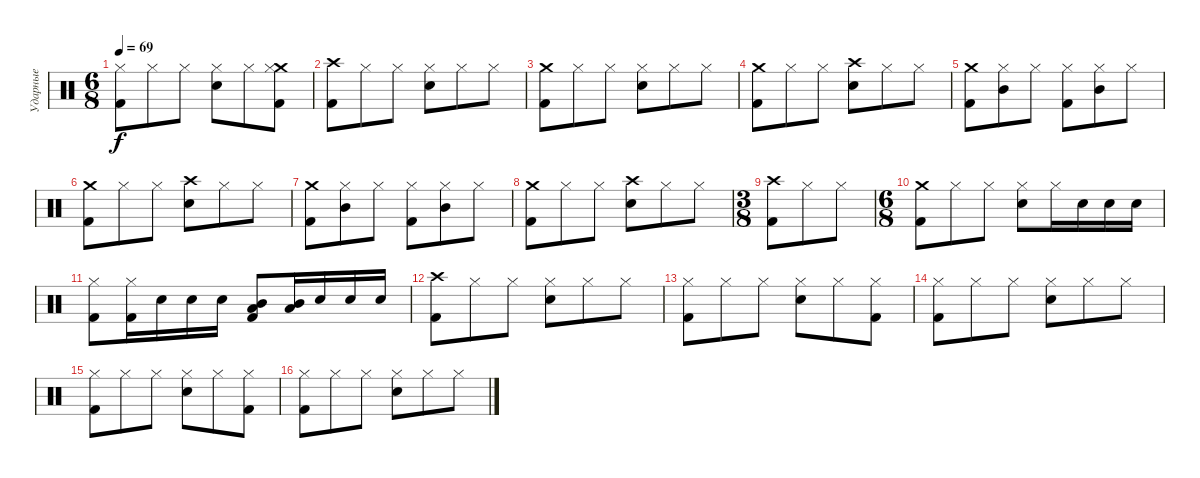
\track ("Ударные" "Ударные") {instrument percussion}
\staff {score}
\articulation defaults
\ts (6 8)
\tempo 69
\clef neutral
\ks c
("Hi-Hat (closed)" "Kick (hit) 2").8{dy f} "Hi-Hat (closed)".8 "Hi-Hat (closed)".8 ("Hi-Hat (closed)" "Snare (hit) 2").8 "Hi-Hat (closed)".8 ("Crash medium (hit)" "Hi-Hat (closed)" "Kick (hit) 2").8 |
("Crash high (hit)" "Kick (hit) 2").8 "Hi-Hat (closed)".8 "Hi-Hat (closed)".8 ("Hi-Hat (closed)" "Snare (hit) 2").8 "Hi-Hat (closed)".8 "Hi-Hat (closed)".8 |
("Crash medium (hit)" "Kick (hit) 2").8 "Hi-Hat (closed)".8 "Hi-Hat (closed)".8 ("Hi-Hat (closed)" "Snare (hit) 2").8 "Hi-Hat (closed)".8 "Hi-Hat (closed)".8 |
("Crash medium (hit)" "Kick (hit) 2").8 "Hi-Hat (closed)".8 "Hi-Hat (closed)".8 ("Crash high (hit)" "Snare (hit) 2").8 "Hi-Hat (closed)".8 "Hi-Hat (closed)".8 |
("Crash medium (hit)" "Kick (hit) 2").8 ("Hi-Hat (closed)" "Mid Tom (hit)").8 "Hi-Hat (closed)".8 ("Hi-Hat (closed)" "Kick (hit) 2").8 ("Hi-Hat (closed)" "Mid Tom (hit)").8 "Hi-Hat (closed)".8 |
("Crash medium (hit)" "Kick (hit) 2").8 "Hi-Hat (closed)".8 "Hi-Hat (closed)".8 ("Crash high (hit)" "Snare (hit) 2").8 "Hi-Hat (closed)".8 "Hi-Hat (closed)".8 |
("Crash medium (hit)" "Kick (hit) 2").8 ("Hi-Hat (closed)" "Mid Tom (hit)").8 "Hi-Hat (closed)".8 ("Hi-Hat (closed)" "Kick (hit) 2").8 ("Hi-Hat (closed)" "Mid Tom (hit)").8 "Hi-Hat (closed)".8 |
("Crash medium (hit)" "Kick (hit) 2").8 "Hi-Hat (closed)".8 "Hi-Hat (closed)".8 ("Crash high (hit)" "Snare (hit) 2").8 "Hi-Hat (closed)".8 "Hi-Hat (closed)".8 |
\ts (3 8)
("Crash high (hit)" "Kick (hit) 2").8 "Hi-Hat (closed)".8 "Hi-Hat (closed)".8 |
\ts (6 8)
("Crash medium (hit)" "Kick (hit) 2").8 "Hi-Hat (closed)".8 "Hi-Hat (closed)".8 ("Hi-Hat (closed)" "Snare (hit) 2").8 "Hi-Hat (closed)".16 "Snare (hit) 2".16 "Snare (hit) 2".16 "Snare (hit) 2".16 |
("Hi-Hat (closed)" "Kick (hit) 2").8 ("Hi-Hat (closed)" "Kick (hit) 2").16 "Snare (hit) 2".16 "Snare (hit) 2".16 "Snare (hit) 2".16 ("Mid Tom (hit)" "Low Tom (hit)" "Kick (hit) 2").8 ("Mid Tom (hit)" "Low Tom (hit)").16 "Snare (hit) 2".16 "Snare (hit) 2".16 "Snare (hit) 2".16 |
("Crash high (hit)" "Kick (hit) 2").8 "Hi-Hat (closed)".8 "Hi-Hat (closed)".8 ("Hi-Hat (closed)" "Snare (hit) 2").8 "Hi-Hat (closed)".8 "Hi-Hat (closed)".8 |
("Hi-Hat (closed)" "Kick (hit) 2").8 "Hi-Hat (closed)".8 "Hi-Hat (closed)".8 ("Hi-Hat (closed)" "Snare (hit) 2").8 "Hi-Hat (closed)".8 ("Hi-Hat (closed)" "Kick (hit) 2").8 |
("Hi-Hat (closed)" "Kick (hit) 2").8 "Hi-Hat (closed)".8 "Hi-Hat (closed)".8 ("Hi-Hat (closed)" "Snare (hit) 2").8 "Hi-Hat (closed)".8 "Hi-Hat (closed)".8 |
("Hi-Hat (closed)" "Kick (hit) 2").8 "Hi-Hat (closed)".8 "Hi-Hat (closed)".8 ("Hi-Hat (closed)" "Snare (hit) 2").8 "Hi-Hat (closed)".8 ("Hi-Hat (closed)" "Kick (hit) 2").8 |
("Hi-Hat (closed)" "Kick (hit) 2").8 "Hi-Hat (closed)".8 "Hi-Hat (closed)".8 ("Hi-Hat (closed)" "Snare (hit) 2").8 "Hi-Hat (closed)".8 "Hi-Hat (closed)".8
